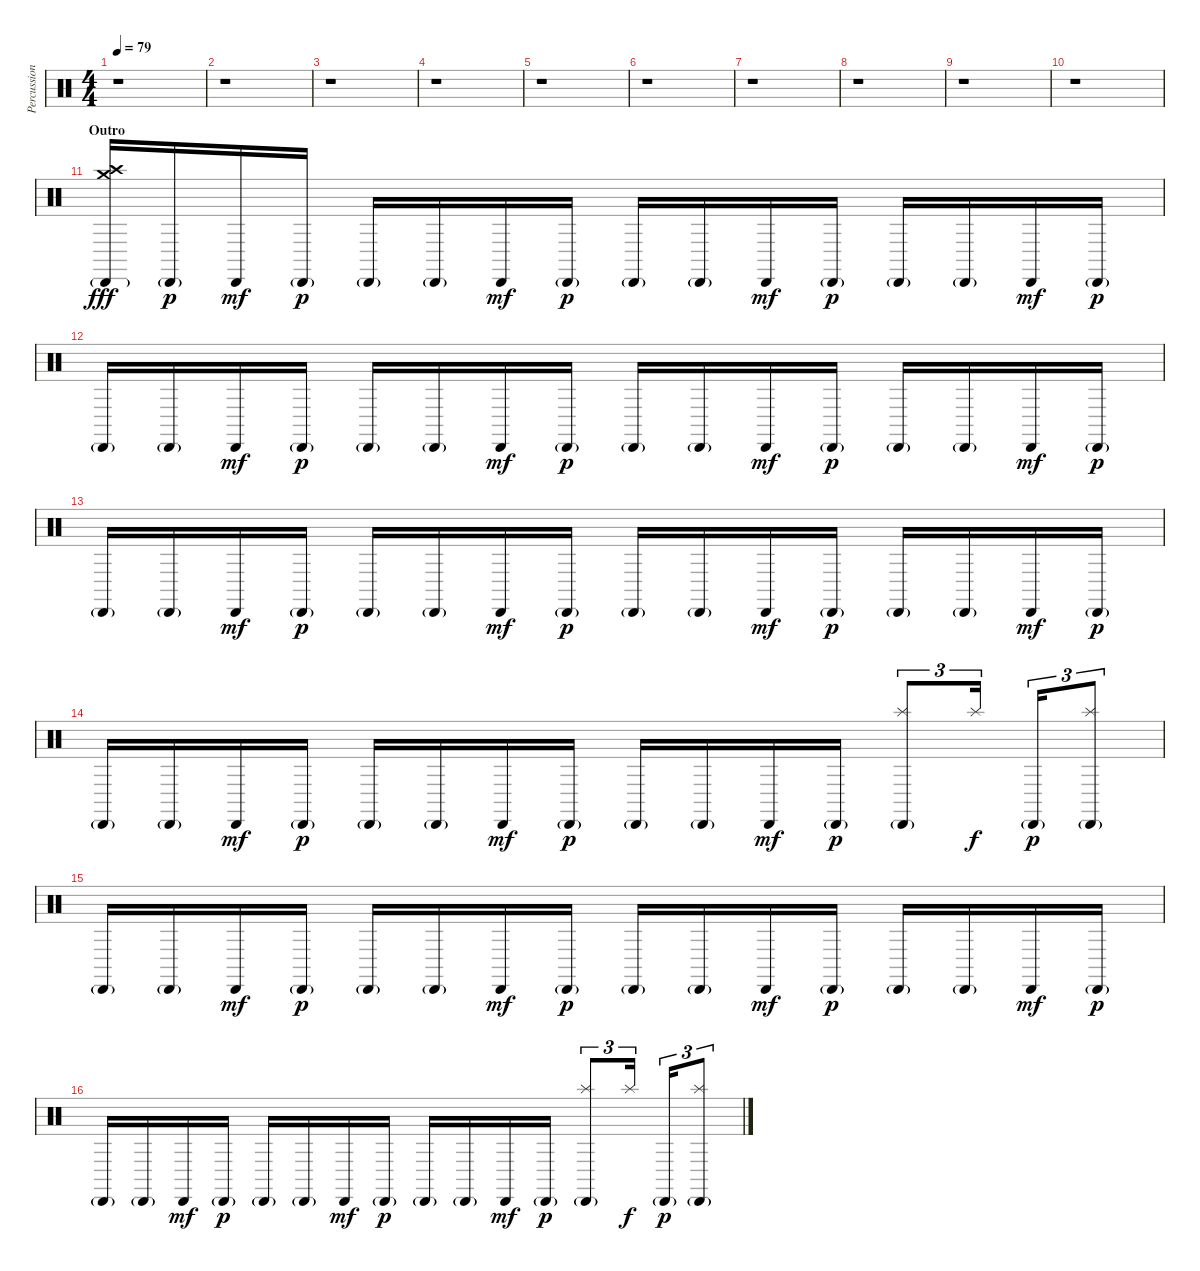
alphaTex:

\track ("Percussion Overdubs" "Percussion") {instrument percussion}
\staff {score}
\articulation defaults
\ts (4 4)
\tempo 79
\clef neutral
\ks c
r.1{dy p} |
r.1 |
r.1 |
r.1 |
r.1 |
r.1 |
r.1 |
r.1 |
r.1 |
r.1 |
\section ("" "Outro")
("Cabasa (hit)"{g} "Crash medium (hit)" "Crash high (hit)").16{dy fff} "Cabasa (hit)"{g}.16{dy p} "Cabasa (hit)".16{dy mf} "Cabasa (hit)"{g}.16{dy p} "Cabasa (hit)"{g}.16 "Cabasa (hit)"{g}.16 "Cabasa (hit)".16{dy mf} "Cabasa (hit)"{g}.16{dy p} "Cabasa (hit)"{g}.16 "Cabasa (hit)"{g}.16 "Cabasa (hit)".16{dy mf} "Cabasa (hit)"{g}.16{dy p} "Cabasa (hit)"{g}.16 "Cabasa (hit)"{g}.16 "Cabasa (hit)".16{dy mf} "Cabasa (hit)"{g}.16{dy p} |
"Cabasa (hit)"{g}.16 "Cabasa (hit)"{g}.16 "Cabasa (hit)".16{dy mf} "Cabasa (hit)"{g}.16{dy p} "Cabasa (hit)"{g}.16 "Cabasa (hit)"{g}.16 "Cabasa (hit)".16{dy mf} "Cabasa (hit)"{g}.16{dy p} "Cabasa (hit)"{g}.16 "Cabasa (hit)"{g}.16 "Cabasa (hit)".16{dy mf} "Cabasa (hit)"{g}.16{dy p} "Cabasa (hit)"{g}.16 "Cabasa (hit)"{g}.16 "Cabasa (hit)".16{dy mf} "Cabasa (hit)"{g}.16{dy p} |
"Cabasa (hit)"{g}.16 "Cabasa (hit)"{g}.16 "Cabasa (hit)".16{dy mf} "Cabasa (hit)"{g}.16{dy p} "Cabasa (hit)"{g}.16 "Cabasa (hit)"{g}.16 "Cabasa (hit)".16{dy mf} "Cabasa (hit)"{g}.16{dy p} "Cabasa (hit)"{g}.16 "Cabasa (hit)"{g}.16 "Cabasa (hit)".16{dy mf} "Cabasa (hit)"{g}.16{dy p} "Cabasa (hit)"{g}.16 "Cabasa (hit)"{g}.16 "Cabasa (hit)".16{dy mf} "Cabasa (hit)"{g}.16{dy p} |
"Cabasa (hit)"{g}.16 "Cabasa (hit)"{g}.16 "Cabasa (hit)".16{dy mf} "Cabasa (hit)"{g}.16{dy p} "Cabasa (hit)"{g}.16 "Cabasa (hit)"{g}.16 "Cabasa (hit)".16{dy mf} "Cabasa (hit)"{g}.16{dy p} "Cabasa (hit)"{g}.16 "Cabasa (hit)"{g}.16 "Cabasa (hit)".16{dy mf} "Cabasa (hit)"{g}.16{dy p} ("Cabasa (hit)"{g} "Splash (hit)").8{tu (3 2)} "Splash (hit)".16{tu (3 2) dy f} "Cabasa (hit)"{g}.16{tu (3 2) dy p} ("Cabasa (hit)"{g} "Splash (hit)").8{tu (3 2)} |
"Cabasa (hit)"{g}.16 "Cabasa (hit)"{g}.16 "Cabasa (hit)".16{dy mf} "Cabasa (hit)"{g}.16{dy p} "Cabasa (hit)"{g}.16 "Cabasa (hit)"{g}.16 "Cabasa (hit)".16{dy mf} "Cabasa (hit)"{g}.16{dy p} "Cabasa (hit)"{g}.16 "Cabasa (hit)"{g}.16 "Cabasa (hit)".16{dy mf} "Cabasa (hit)"{g}.16{dy p} "Cabasa (hit)"{g}.16 "Cabasa (hit)"{g}.16 "Cabasa (hit)".16{dy mf} "Cabasa (hit)"{g}.16{dy p} |
"Cabasa (hit)"{g}.16 "Cabasa (hit)"{g}.16 "Cabasa (hit)".16{dy mf} "Cabasa (hit)"{g}.16{dy p} "Cabasa (hit)"{g}.16 "Cabasa (hit)"{g}.16 "Cabasa (hit)".16{dy mf} "Cabasa (hit)"{g}.16{dy p} "Cabasa (hit)"{g}.16 "Cabasa (hit)"{g}.16 "Cabasa (hit)".16{dy mf} "Cabasa (hit)"{g}.16{dy p} ("Cabasa (hit)"{g} "Splash (hit)").8{tu (3 2)} "Splash (hit)".16{tu (3 2) dy f} "Cabasa (hit)"{g}.16{tu (3 2) dy p} ("Cabasa (hit)"{g} "Splash (hit)").8{tu (3 2)}
